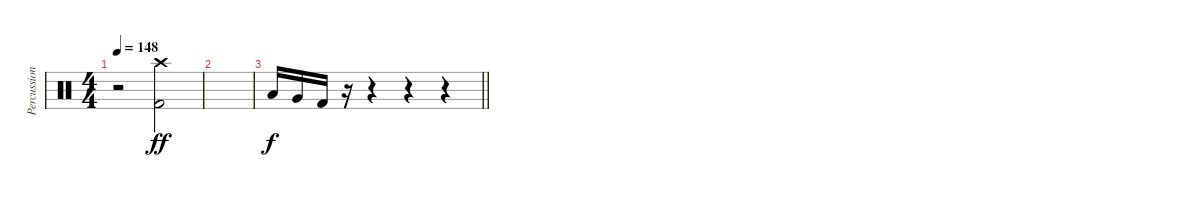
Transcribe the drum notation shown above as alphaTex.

\track ("Percussion" "Percussion") {instrument percussion}
\staff {score}
\articulation defaults
\ts (4 4)
\tempo 148
\clef neutral
\ks c
r.2{dy ff} ("Kick (hit) 2" "Crash high (hit)").2 |
|
\barLineRight lightlight "Low Tom (hit)".16{dy f} "Very Low Tom (hit)".16 "Kick (hit) 2".16
r.16 r.4 r.4 r.4
